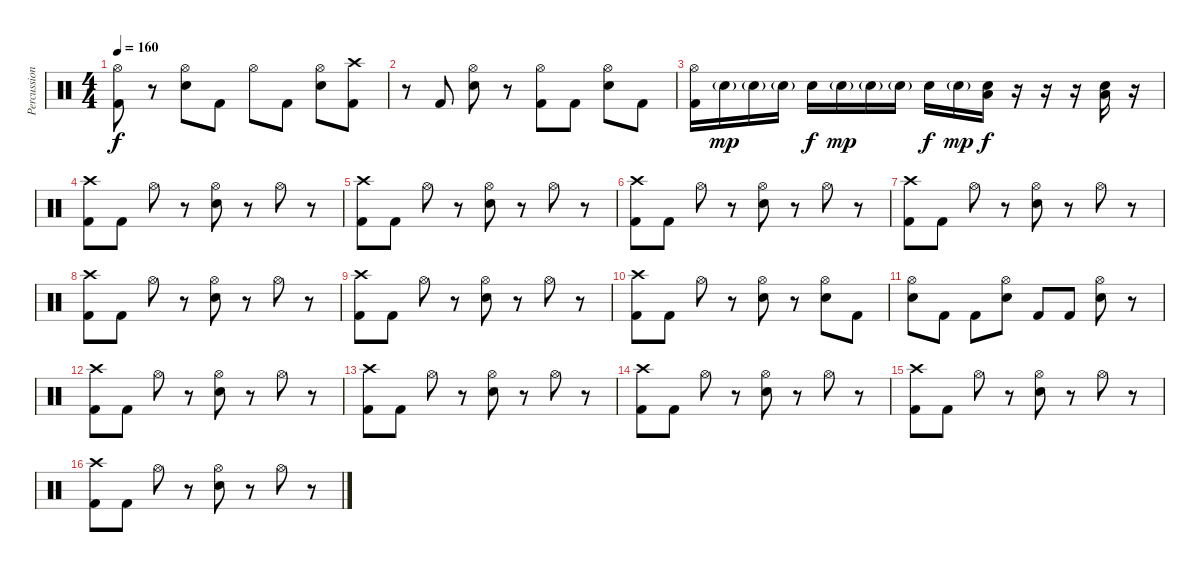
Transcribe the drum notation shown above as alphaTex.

\track ("Percussion" "Percussion") {instrument percussion}
\staff {score}
\articulation defaults
\ts (4 4)
\tempo 160
\clef neutral
\ks c
("Hi-Hat (open)" "Kick (hit) 2").8{dy f} r.8 ("Hi-Hat (open)" "Electric Snare (hit)").8 "Kick (hit) 2".8 "Hi-Hat (open)".8 "Kick (hit) 2".8 ("Hi-Hat (open)" "Electric Snare (hit)").8 ("Crash high (hit)" "Kick (hit) 2").8 |
r.8 "Kick (hit) 2".8 ("Hi-Hat (open)" "Electric Snare (hit)").8 r.8 ("Hi-Hat (open)" "Kick (hit) 2").8 "Kick (hit) 2".8 ("Hi-Hat (open)" "Electric Snare (hit)").8 "Kick (hit) 2".8 |
("Hi-Hat (open)" "Kick (hit) 2").16 "Electric Snare (hit)"{g}.16{dy mp} "Electric Snare (hit)"{g}.16 "Electric Snare (hit)"{g}.16 "Electric Snare (hit)".16{dy f} "Electric Snare (hit)"{g}.16{dy mp} "Electric Snare (hit)"{g}.16 "Electric Snare (hit)"{g}.16 "Electric Snare (hit)".16{dy f} "Electric Snare (hit)"{g}.16{dy mp} ("Electric Snare (hit)" "Low Floor Tom (hit)").16{dy f} r.16 r.16 r.16 ("Electric Snare (hit)" "Low Floor Tom (hit)").16 r.16 |
("Crash high (hit)" "Kick (hit) 2").8 "Kick (hit) 2".8 "Hi-Hat (open)".8 r.8 ("Hi-Hat (open)" "Electric Snare (hit)").8 r.8 "Hi-Hat (open)".8 r.8 |
("Crash high (hit)" "Kick (hit) 2").8 "Kick (hit) 2".8 "Hi-Hat (open)".8 r.8 ("Hi-Hat (open)" "Electric Snare (hit)").8 r.8 "Hi-Hat (open)".8 r.8 |
("Crash high (hit)" "Kick (hit) 2").8 "Kick (hit) 2".8 "Hi-Hat (open)".8 r.8 ("Hi-Hat (open)" "Electric Snare (hit)").8 r.8 "Hi-Hat (open)".8 r.8 |
("Crash high (hit)" "Kick (hit) 2").8 "Kick (hit) 2".8 "Hi-Hat (open)".8 r.8 ("Hi-Hat (open)" "Electric Snare (hit)").8 r.8 "Hi-Hat (open)".8 r.8 |
("Crash high (hit)" "Kick (hit) 2").8 "Kick (hit) 2".8 "Hi-Hat (open)".8 r.8 ("Hi-Hat (open)" "Electric Snare (hit)").8 r.8 "Hi-Hat (open)".8 r.8 |
("Crash high (hit)" "Kick (hit) 2").8 "Kick (hit) 2".8 "Hi-Hat (open)".8 r.8 ("Hi-Hat (open)" "Electric Snare (hit)").8 r.8 "Hi-Hat (open)".8 r.8 |
("Crash high (hit)" "Kick (hit) 2").8 "Kick (hit) 2".8 "Hi-Hat (open)".8 r.8 ("Hi-Hat (open)" "Electric Snare (hit)").8 r.8 ("Hi-Hat (open)" "Electric Snare (hit)").8 "Kick (hit) 2".8 |
("Hi-Hat (open)" "Electric Snare (hit)").8 "Kick (hit) 2".8 "Kick (hit) 2".8 ("Hi-Hat (open)" "Electric Snare (hit)").8 "Kick (hit) 2".8 "Kick (hit) 2".8 ("Hi-Hat (open)" "Electric Snare (hit)").8 r.8 |
("Crash high (hit)" "Kick (hit) 2").8 "Kick (hit) 2".8 "Hi-Hat (open)".8 r.8 ("Hi-Hat (open)" "Electric Snare (hit)").8 r.8 "Hi-Hat (open)".8 r.8 |
("Crash high (hit)" "Kick (hit) 2").8 "Kick (hit) 2".8 "Hi-Hat (open)".8 r.8 ("Hi-Hat (open)" "Electric Snare (hit)").8 r.8 "Hi-Hat (open)".8 r.8 |
("Crash high (hit)" "Kick (hit) 2").8 "Kick (hit) 2".8 "Hi-Hat (open)".8 r.8 ("Hi-Hat (open)" "Electric Snare (hit)").8 r.8 "Hi-Hat (open)".8 r.8 |
("Crash high (hit)" "Kick (hit) 2").8 "Kick (hit) 2".8 "Hi-Hat (open)".8 r.8 ("Hi-Hat (open)" "Electric Snare (hit)").8 r.8 "Hi-Hat (open)".8 r.8 |
("Crash high (hit)" "Kick (hit) 2").8 "Kick (hit) 2".8 "Hi-Hat (open)".8 r.8 ("Hi-Hat (open)" "Electric Snare (hit)").8 r.8 "Hi-Hat (open)".8 r.8
